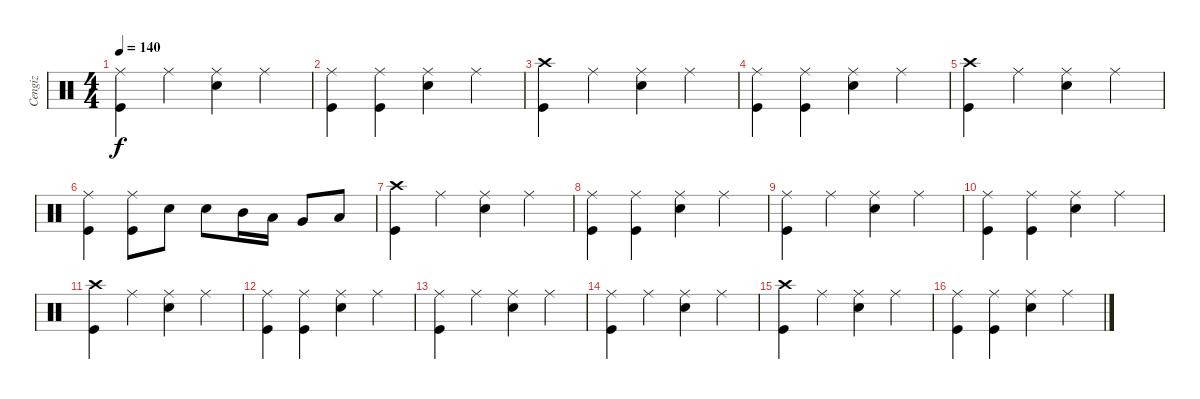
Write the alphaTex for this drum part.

\track ("Cengiz" "Cengiz") {instrument percussion}
\staff {score}
\articulation defaults
\ts (4 4)
\tempo 140
\clef neutral
\ks c
("Ride (middle)" "Kick (hit)").4{dy f} "Ride (middle)".4 ("Ride (middle)" "Electric Snare (hit)").4 "Ride (middle)".4 |
("Ride (middle)" "Kick (hit)").4 ("Ride (middle)" "Kick (hit)").4 ("Ride (middle)" "Electric Snare (hit)").4 "Ride (middle)".4 |
("Crash high (hit)" "Kick (hit)").4 "Ride (middle)".4 ("Ride (middle)" "Electric Snare (hit)").4 "Ride (middle)".4 |
("Ride (middle)" "Kick (hit)").4 ("Ride (middle)" "Kick (hit)").4 ("Ride (middle)" "Electric Snare (hit)").4 "Ride (middle)".4 |
("Crash high (hit)" "Kick (hit)").4 "Ride (middle)".4 ("Ride (middle)" "Electric Snare (hit)").4 "Ride (middle)".4 |
("Ride (middle)" "Kick (hit)").4 ("Ride (middle)" "Kick (hit)").8 "Electric Snare (hit)".8 "Electric Snare (hit)".8 "Mid Tom (hit)".16 "Low Tom (hit)".16 "Very Low Tom (hit)".8 "Low Floor Tom (hit)".8 |
("Crash high (hit)" "Kick (hit)").4 "Ride (middle)".4 ("Ride (middle)" "Electric Snare (hit)").4 "Ride (middle)".4 |
("Ride (middle)" "Kick (hit)").4 ("Ride (middle)" "Kick (hit)").4 ("Ride (middle)" "Electric Snare (hit)").4 "Ride (middle)".4 |
("Ride (middle)" "Kick (hit)").4 "Ride (middle)".4 ("Ride (middle)" "Electric Snare (hit)").4 "Ride (middle)".4 |
("Ride (middle)" "Kick (hit)").4 ("Ride (middle)" "Kick (hit)").4 ("Ride (middle)" "Electric Snare (hit)").4 "Ride (middle)".4 |
("Crash high (hit)" "Kick (hit)").4 "Ride (middle)".4 ("Ride (middle)" "Electric Snare (hit)").4 "Ride (middle)".4 |
("Ride (middle)" "Kick (hit)").4 ("Ride (middle)" "Kick (hit)").4 ("Ride (middle)" "Electric Snare (hit)").4 "Ride (middle)".4 |
("Ride (middle)" "Kick (hit)").4 "Ride (middle)".4 ("Ride (middle)" "Electric Snare (hit)").4 "Ride (middle)".4 |
("Ride (middle)" "Kick (hit)").4 "Ride (middle)".4 ("Ride (middle)" "Electric Snare (hit)").4 "Ride (middle)".4 |
("Crash high (hit)" "Kick (hit)").4 "Ride (middle)".4 ("Ride (middle)" "Electric Snare (hit)").4 "Ride (middle)".4 |
("Ride (middle)" "Kick (hit)").4 ("Ride (middle)" "Kick (hit)").4 ("Ride (middle)" "Electric Snare (hit)").4 "Ride (middle)".4
